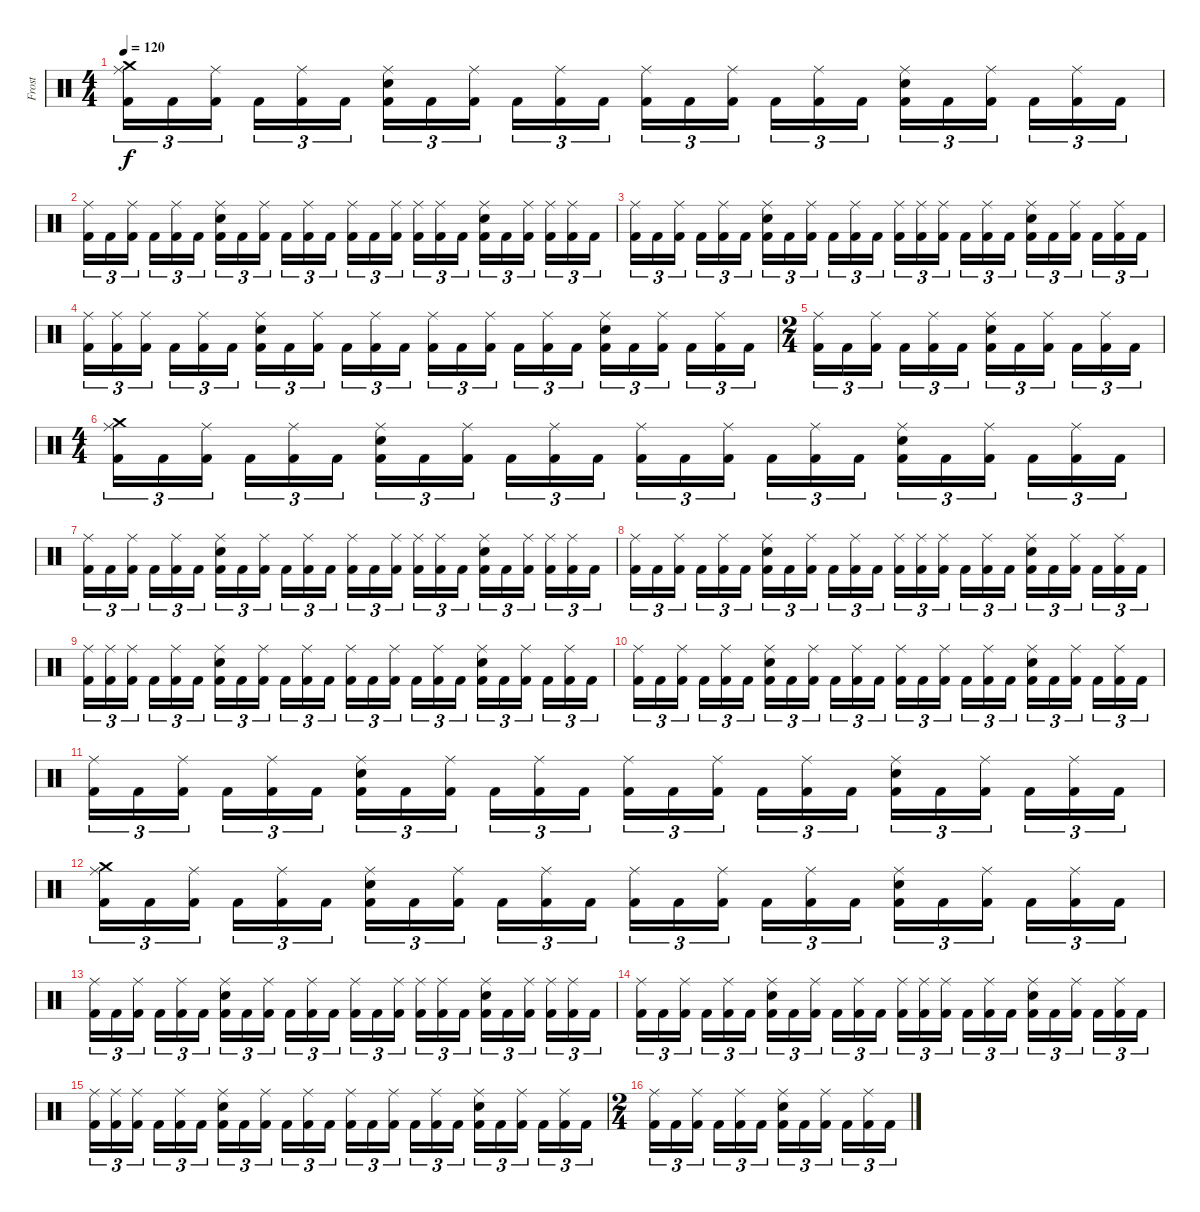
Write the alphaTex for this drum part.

\track ("Frost" "Frost") {instrument percussion}
\staff {score}
\articulation defaults
\ts (4 4)
\tempo 120
\clef neutral
\ks c
("Kick (hit) 2" "Crash medium (hit)" "Ride (middle)").16{tu (3 2) dy f} "Kick (hit) 2".16{tu (3 2)} ("Kick (hit) 2" "Ride (middle)").16{tu (3 2)} "Kick (hit) 2".16{tu (3 2)} ("Kick (hit) 2" "Ride (middle)").16{tu (3 2)} "Kick (hit) 2".16{tu (3 2)} ("Kick (hit) 2" "Electric Snare (hit)" "Ride (middle)").16{tu (3 2)} "Kick (hit) 2".16{tu (3 2)} ("Kick (hit) 2" "Ride (middle)").16{tu (3 2)} "Kick (hit) 2".16{tu (3 2)} ("Kick (hit) 2" "Ride (middle)").16{tu (3 2)} "Kick (hit) 2".16{tu (3 2)} ("Kick (hit) 2" "Ride (middle)").16{tu (3 2)} "Kick (hit) 2".16{tu (3 2)} ("Kick (hit) 2" "Ride (middle)").16{tu (3 2)} "Kick (hit) 2".16{tu (3 2)} ("Kick (hit) 2" "Ride (middle)").16{tu (3 2)} "Kick (hit) 2".16{tu (3 2)} ("Kick (hit) 2" "Electric Snare (hit)" "Ride (middle)").16{tu (3 2)} "Kick (hit) 2".16{tu (3 2)} ("Kick (hit) 2" "Ride (middle)").16{tu (3 2)} "Kick (hit) 2".16{tu (3 2)} ("Kick (hit) 2" "Ride (middle)").16{tu (3 2)} "Kick (hit) 2".16{tu (3 2)} |
("Kick (hit) 2" "Ride (middle)").16{tu (3 2)} "Kick (hit) 2".16{tu (3 2)} ("Kick (hit) 2" "Ride (middle)").16{tu (3 2)} "Kick (hit) 2".16{tu (3 2)} ("Kick (hit) 2" "Ride (middle)").16{tu (3 2)} "Kick (hit) 2".16{tu (3 2)} ("Kick (hit) 2" "Electric Snare (hit)" "Ride (middle)").16{tu (3 2)} "Kick (hit) 2".16{tu (3 2)} ("Kick (hit) 2" "Ride (middle)").16{tu (3 2)} "Kick (hit) 2".16{tu (3 2)} ("Kick (hit) 2" "Ride (middle)").16{tu (3 2)} "Kick (hit) 2".16{tu (3 2)} ("Kick (hit) 2" "Ride (middle)").16{tu (3 2)} "Kick (hit) 2".16{tu (3 2)} ("Kick (hit) 2" "Ride (middle)").16{tu (3 2)} ("Kick (hit) 2" "Ride (middle)").16{tu (3 2)} ("Kick (hit) 2" "Ride (middle)").16{tu (3 2)} "Kick (hit) 2".16{tu (3 2)} ("Kick (hit) 2" "Electric Snare (hit)" "Ride (middle)").16{tu (3 2)} "Kick (hit) 2".16{tu (3 2)} ("Kick (hit) 2" "Ride (middle)").16{tu (3 2)} ("Kick (hit) 2" "Ride (middle)").16{tu (3 2)} ("Kick (hit) 2" "Ride (middle)").16{tu (3 2)} "Kick (hit) 2".16{tu (3 2)} |
("Kick (hit) 2" "Ride (middle)").16{tu (3 2)} "Kick (hit) 2".16{tu (3 2)} ("Kick (hit) 2" "Ride (middle)").16{tu (3 2)} "Kick (hit) 2".16{tu (3 2)} ("Kick (hit) 2" "Ride (middle)").16{tu (3 2)} "Kick (hit) 2".16{tu (3 2)} ("Kick (hit) 2" "Electric Snare (hit)" "Ride (middle)").16{tu (3 2)} "Kick (hit) 2".16{tu (3 2)} ("Kick (hit) 2" "Ride (middle)").16{tu (3 2)} "Kick (hit) 2".16{tu (3 2)} ("Kick (hit) 2" "Ride (middle)").16{tu (3 2)} "Kick (hit) 2".16{tu (3 2)} ("Kick (hit) 2" "Ride (middle)").16{tu (3 2)} ("Kick (hit) 2" "Ride (middle)").16{tu (3 2)} ("Kick (hit) 2" "Ride (middle)").16{tu (3 2)} "Kick (hit) 2".16{tu (3 2)} ("Kick (hit) 2" "Ride (middle)").16{tu (3 2)} "Kick (hit) 2".16{tu (3 2)} ("Kick (hit) 2" "Electric Snare (hit)" "Ride (middle)").16{tu (3 2)} "Kick (hit) 2".16{tu (3 2)} ("Kick (hit) 2" "Ride (middle)").16{tu (3 2)} "Kick (hit) 2".16{tu (3 2)} ("Kick (hit) 2" "Ride (middle)").16{tu (3 2)} "Kick (hit) 2".16{tu (3 2)} |
("Kick (hit) 2" "Ride (middle)").16{tu (3 2)} ("Kick (hit) 2" "Ride (middle)").16{tu (3 2)} ("Kick (hit) 2" "Ride (middle)").16{tu (3 2)} "Kick (hit) 2".16{tu (3 2)} ("Kick (hit) 2" "Ride (middle)").16{tu (3 2)} "Kick (hit) 2".16{tu (3 2)} ("Kick (hit) 2" "Electric Snare (hit)" "Ride (middle)").16{tu (3 2)} "Kick (hit) 2".16{tu (3 2)} ("Kick (hit) 2" "Ride (middle)").16{tu (3 2)} "Kick (hit) 2".16{tu (3 2)} ("Kick (hit) 2" "Ride (middle)").16{tu (3 2)} "Kick (hit) 2".16{tu (3 2)} ("Kick (hit) 2" "Ride (middle)").16{tu (3 2)} "Kick (hit) 2".16{tu (3 2)} ("Kick (hit) 2" "Ride (middle)").16{tu (3 2)} "Kick (hit) 2".16{tu (3 2)} ("Kick (hit) 2" "Ride (middle)").16{tu (3 2)} "Kick (hit) 2".16{tu (3 2)} ("Kick (hit) 2" "Electric Snare (hit)" "Ride (middle)").16{tu (3 2)} "Kick (hit) 2".16{tu (3 2)} ("Kick (hit) 2" "Ride (middle)").16{tu (3 2)} "Kick (hit) 2".16{tu (3 2)} ("Kick (hit) 2" "Ride (middle)").16{tu (3 2)} "Kick (hit) 2".16{tu (3 2)} |
\ts (2 4)
("Kick (hit) 2" "Ride (middle)").16{tu (3 2)} "Kick (hit) 2".16{tu (3 2)} ("Kick (hit) 2" "Ride (middle)").16{tu (3 2)} "Kick (hit) 2".16{tu (3 2)} ("Kick (hit) 2" "Ride (middle)").16{tu (3 2)} "Kick (hit) 2".16{tu (3 2)} ("Kick (hit) 2" "Electric Snare (hit)" "Ride (middle)").16{tu (3 2)} "Kick (hit) 2".16{tu (3 2)} ("Kick (hit) 2" "Ride (middle)").16{tu (3 2)} "Kick (hit) 2".16{tu (3 2)} ("Kick (hit) 2" "Ride (middle)").16{tu (3 2)} "Kick (hit) 2".16{tu (3 2)} |
\ts (4 4)
("Kick (hit) 2" "Crash medium (hit)" "Ride (middle)").16{tu (3 2)} "Kick (hit) 2".16{tu (3 2)} ("Kick (hit) 2" "Ride (middle)").16{tu (3 2)} "Kick (hit) 2".16{tu (3 2)} ("Kick (hit) 2" "Ride (middle)").16{tu (3 2)} "Kick (hit) 2".16{tu (3 2)} ("Kick (hit) 2" "Electric Snare (hit)" "Ride (middle)").16{tu (3 2)} "Kick (hit) 2".16{tu (3 2)} ("Kick (hit) 2" "Ride (middle)").16{tu (3 2)} "Kick (hit) 2".16{tu (3 2)} ("Kick (hit) 2" "Ride (middle)").16{tu (3 2)} "Kick (hit) 2".16{tu (3 2)} ("Kick (hit) 2" "Ride (middle)").16{tu (3 2)} "Kick (hit) 2".16{tu (3 2)} ("Kick (hit) 2" "Ride (middle)").16{tu (3 2)} "Kick (hit) 2".16{tu (3 2)} ("Kick (hit) 2" "Ride (middle)").16{tu (3 2)} "Kick (hit) 2".16{tu (3 2)} ("Kick (hit) 2" "Electric Snare (hit)" "Ride (middle)").16{tu (3 2)} "Kick (hit) 2".16{tu (3 2)} ("Kick (hit) 2" "Ride (middle)").16{tu (3 2)} "Kick (hit) 2".16{tu (3 2)} ("Kick (hit) 2" "Ride (middle)").16{tu (3 2)} "Kick (hit) 2".16{tu (3 2)} |
("Kick (hit) 2" "Ride (middle)").16{tu (3 2)} "Kick (hit) 2".16{tu (3 2)} ("Kick (hit) 2" "Ride (middle)").16{tu (3 2)} "Kick (hit) 2".16{tu (3 2)} ("Kick (hit) 2" "Ride (middle)").16{tu (3 2)} "Kick (hit) 2".16{tu (3 2)} ("Kick (hit) 2" "Electric Snare (hit)" "Ride (middle)").16{tu (3 2)} "Kick (hit) 2".16{tu (3 2)} ("Kick (hit) 2" "Ride (middle)").16{tu (3 2)} "Kick (hit) 2".16{tu (3 2)} ("Kick (hit) 2" "Ride (middle)").16{tu (3 2)} "Kick (hit) 2".16{tu (3 2)} ("Kick (hit) 2" "Ride (middle)").16{tu (3 2)} "Kick (hit) 2".16{tu (3 2)} ("Kick (hit) 2" "Ride (middle)").16{tu (3 2)} ("Kick (hit) 2" "Ride (middle)").16{tu (3 2)} ("Kick (hit) 2" "Ride (middle)").16{tu (3 2)} "Kick (hit) 2".16{tu (3 2)} ("Kick (hit) 2" "Electric Snare (hit)" "Ride (middle)").16{tu (3 2)} "Kick (hit) 2".16{tu (3 2)} ("Kick (hit) 2" "Ride (middle)").16{tu (3 2)} ("Kick (hit) 2" "Ride (middle)").16{tu (3 2)} ("Kick (hit) 2" "Ride (middle)").16{tu (3 2)} "Kick (hit) 2".16{tu (3 2)} |
("Kick (hit) 2" "Ride (middle)").16{tu (3 2)} "Kick (hit) 2".16{tu (3 2)} ("Kick (hit) 2" "Ride (middle)").16{tu (3 2)} "Kick (hit) 2".16{tu (3 2)} ("Kick (hit) 2" "Ride (middle)").16{tu (3 2)} "Kick (hit) 2".16{tu (3 2)} ("Kick (hit) 2" "Electric Snare (hit)" "Ride (middle)").16{tu (3 2)} "Kick (hit) 2".16{tu (3 2)} ("Kick (hit) 2" "Ride (middle)").16{tu (3 2)} "Kick (hit) 2".16{tu (3 2)} ("Kick (hit) 2" "Ride (middle)").16{tu (3 2)} "Kick (hit) 2".16{tu (3 2)} ("Kick (hit) 2" "Ride (middle)").16{tu (3 2)} ("Kick (hit) 2" "Ride (middle)").16{tu (3 2)} ("Kick (hit) 2" "Ride (middle)").16{tu (3 2)} "Kick (hit) 2".16{tu (3 2)} ("Kick (hit) 2" "Ride (middle)").16{tu (3 2)} "Kick (hit) 2".16{tu (3 2)} ("Kick (hit) 2" "Electric Snare (hit)" "Ride (middle)").16{tu (3 2)} "Kick (hit) 2".16{tu (3 2)} ("Kick (hit) 2" "Ride (middle)").16{tu (3 2)} "Kick (hit) 2".16{tu (3 2)} ("Kick (hit) 2" "Ride (middle)").16{tu (3 2)} "Kick (hit) 2".16{tu (3 2)} |
("Kick (hit) 2" "Ride (middle)").16{tu (3 2)} ("Kick (hit) 2" "Ride (middle)").16{tu (3 2)} ("Kick (hit) 2" "Ride (middle)").16{tu (3 2)} "Kick (hit) 2".16{tu (3 2)} ("Kick (hit) 2" "Ride (middle)").16{tu (3 2)} "Kick (hit) 2".16{tu (3 2)} ("Kick (hit) 2" "Electric Snare (hit)" "Ride (middle)").16{tu (3 2)} "Kick (hit) 2".16{tu (3 2)} ("Kick (hit) 2" "Ride (middle)").16{tu (3 2)} "Kick (hit) 2".16{tu (3 2)} ("Kick (hit) 2" "Ride (middle)").16{tu (3 2)} "Kick (hit) 2".16{tu (3 2)} ("Kick (hit) 2" "Ride (middle)").16{tu (3 2)} "Kick (hit) 2".16{tu (3 2)} ("Kick (hit) 2" "Ride (middle)").16{tu (3 2)} "Kick (hit) 2".16{tu (3 2)} ("Kick (hit) 2" "Ride (middle)").16{tu (3 2)} "Kick (hit) 2".16{tu (3 2)} ("Kick (hit) 2" "Electric Snare (hit)" "Ride (middle)").16{tu (3 2)} "Kick (hit) 2".16{tu (3 2)} ("Kick (hit) 2" "Ride (middle)").16{tu (3 2)} "Kick (hit) 2".16{tu (3 2)} ("Kick (hit) 2" "Ride (middle)").16{tu (3 2)} "Kick (hit) 2".16{tu (3 2)} |
("Kick (hit) 2" "Ride (middle)").16{tu (3 2)} "Kick (hit) 2".16{tu (3 2)} ("Kick (hit) 2" "Ride (middle)").16{tu (3 2)} "Kick (hit) 2".16{tu (3 2)} ("Kick (hit) 2" "Ride (middle)").16{tu (3 2)} "Kick (hit) 2".16{tu (3 2)} ("Kick (hit) 2" "Electric Snare (hit)" "Ride (middle)").16{tu (3 2)} "Kick (hit) 2".16{tu (3 2)} ("Kick (hit) 2" "Ride (middle)").16{tu (3 2)} "Kick (hit) 2".16{tu (3 2)} ("Kick (hit) 2" "Ride (middle)").16{tu (3 2)} "Kick (hit) 2".16{tu (3 2)} ("Kick (hit) 2" "Ride (middle)").16{tu (3 2)} "Kick (hit) 2".16{tu (3 2)} ("Kick (hit) 2" "Ride (middle)").16{tu (3 2)} "Kick (hit) 2".16{tu (3 2)} ("Kick (hit) 2" "Ride (middle)").16{tu (3 2)} "Kick (hit) 2".16{tu (3 2)} ("Kick (hit) 2" "Electric Snare (hit)" "Ride (middle)").16{tu (3 2)} "Kick (hit) 2".16{tu (3 2)} ("Kick (hit) 2" "Ride (middle)").16{tu (3 2)} "Kick (hit) 2".16{tu (3 2)} ("Kick (hit) 2" "Ride (middle)").16{tu (3 2)} "Kick (hit) 2".16{tu (3 2)} |
("Kick (hit) 2" "Ride (middle)").16{tu (3 2)} "Kick (hit) 2".16{tu (3 2)} ("Kick (hit) 2" "Ride (middle)").16{tu (3 2)} "Kick (hit) 2".16{tu (3 2)} ("Kick (hit) 2" "Ride (middle)").16{tu (3 2)} "Kick (hit) 2".16{tu (3 2)} ("Kick (hit) 2" "Electric Snare (hit)" "Ride (middle)").16{tu (3 2)} "Kick (hit) 2".16{tu (3 2)} ("Kick (hit) 2" "Ride (middle)").16{tu (3 2)} "Kick (hit) 2".16{tu (3 2)} ("Kick (hit) 2" "Ride (middle)").16{tu (3 2)} "Kick (hit) 2".16{tu (3 2)} ("Kick (hit) 2" "Ride (middle)").16{tu (3 2)} "Kick (hit) 2".16{tu (3 2)} ("Kick (hit) 2" "Ride (middle)").16{tu (3 2)} "Kick (hit) 2".16{tu (3 2)} ("Kick (hit) 2" "Ride (middle)").16{tu (3 2)} "Kick (hit) 2".16{tu (3 2)} ("Kick (hit) 2" "Electric Snare (hit)" "Ride (middle)").16{tu (3 2)} "Kick (hit) 2".16{tu (3 2)} ("Kick (hit) 2" "Ride (middle)").16{tu (3 2)} "Kick (hit) 2".16{tu (3 2)} ("Kick (hit) 2" "Ride (middle)").16{tu (3 2)} "Kick (hit) 2".16{tu (3 2)} |
("Kick (hit) 2" "Crash medium (hit)" "Ride (middle)").16{tu (3 2)} "Kick (hit) 2".16{tu (3 2)} ("Kick (hit) 2" "Ride (middle)").16{tu (3 2)} "Kick (hit) 2".16{tu (3 2)} ("Kick (hit) 2" "Ride (middle)").16{tu (3 2)} "Kick (hit) 2".16{tu (3 2)} ("Kick (hit) 2" "Electric Snare (hit)" "Ride (middle)").16{tu (3 2)} "Kick (hit) 2".16{tu (3 2)} ("Kick (hit) 2" "Ride (middle)").16{tu (3 2)} "Kick (hit) 2".16{tu (3 2)} ("Kick (hit) 2" "Ride (middle)").16{tu (3 2)} "Kick (hit) 2".16{tu (3 2)} ("Kick (hit) 2" "Ride (middle)").16{tu (3 2)} "Kick (hit) 2".16{tu (3 2)} ("Kick (hit) 2" "Ride (middle)").16{tu (3 2)} "Kick (hit) 2".16{tu (3 2)} ("Kick (hit) 2" "Ride (middle)").16{tu (3 2)} "Kick (hit) 2".16{tu (3 2)} ("Kick (hit) 2" "Electric Snare (hit)" "Ride (middle)").16{tu (3 2)} "Kick (hit) 2".16{tu (3 2)} ("Kick (hit) 2" "Ride (middle)").16{tu (3 2)} "Kick (hit) 2".16{tu (3 2)} ("Kick (hit) 2" "Ride (middle)").16{tu (3 2)} "Kick (hit) 2".16{tu (3 2)} |
("Kick (hit) 2" "Ride (middle)").16{tu (3 2)} "Kick (hit) 2".16{tu (3 2)} ("Kick (hit) 2" "Ride (middle)").16{tu (3 2)} "Kick (hit) 2".16{tu (3 2)} ("Kick (hit) 2" "Ride (middle)").16{tu (3 2)} "Kick (hit) 2".16{tu (3 2)} ("Kick (hit) 2" "Electric Snare (hit)" "Ride (middle)").16{tu (3 2)} "Kick (hit) 2".16{tu (3 2)} ("Kick (hit) 2" "Ride (middle)").16{tu (3 2)} "Kick (hit) 2".16{tu (3 2)} ("Kick (hit) 2" "Ride (middle)").16{tu (3 2)} "Kick (hit) 2".16{tu (3 2)} ("Kick (hit) 2" "Ride (middle)").16{tu (3 2)} "Kick (hit) 2".16{tu (3 2)} ("Kick (hit) 2" "Ride (middle)").16{tu (3 2)} ("Kick (hit) 2" "Ride (middle)").16{tu (3 2)} ("Kick (hit) 2" "Ride (middle)").16{tu (3 2)} "Kick (hit) 2".16{tu (3 2)} ("Kick (hit) 2" "Electric Snare (hit)" "Ride (middle)").16{tu (3 2)} "Kick (hit) 2".16{tu (3 2)} ("Kick (hit) 2" "Ride (middle)").16{tu (3 2)} ("Kick (hit) 2" "Ride (middle)").16{tu (3 2)} ("Kick (hit) 2" "Ride (middle)").16{tu (3 2)} "Kick (hit) 2".16{tu (3 2)} |
("Kick (hit) 2" "Ride (middle)").16{tu (3 2)} "Kick (hit) 2".16{tu (3 2)} ("Kick (hit) 2" "Ride (middle)").16{tu (3 2)} "Kick (hit) 2".16{tu (3 2)} ("Kick (hit) 2" "Ride (middle)").16{tu (3 2)} "Kick (hit) 2".16{tu (3 2)} ("Kick (hit) 2" "Electric Snare (hit)" "Ride (middle)").16{tu (3 2)} "Kick (hit) 2".16{tu (3 2)} ("Kick (hit) 2" "Ride (middle)").16{tu (3 2)} "Kick (hit) 2".16{tu (3 2)} ("Kick (hit) 2" "Ride (middle)").16{tu (3 2)} "Kick (hit) 2".16{tu (3 2)} ("Kick (hit) 2" "Ride (middle)").16{tu (3 2)} ("Kick (hit) 2" "Ride (middle)").16{tu (3 2)} ("Kick (hit) 2" "Ride (middle)").16{tu (3 2)} "Kick (hit) 2".16{tu (3 2)} ("Kick (hit) 2" "Ride (middle)").16{tu (3 2)} "Kick (hit) 2".16{tu (3 2)} ("Kick (hit) 2" "Electric Snare (hit)" "Ride (middle)").16{tu (3 2)} "Kick (hit) 2".16{tu (3 2)} ("Kick (hit) 2" "Ride (middle)").16{tu (3 2)} "Kick (hit) 2".16{tu (3 2)} ("Kick (hit) 2" "Ride (middle)").16{tu (3 2)} "Kick (hit) 2".16{tu (3 2)} |
("Kick (hit) 2" "Ride (middle)").16{tu (3 2)} ("Kick (hit) 2" "Ride (middle)").16{tu (3 2)} ("Kick (hit) 2" "Ride (middle)").16{tu (3 2)} "Kick (hit) 2".16{tu (3 2)} ("Kick (hit) 2" "Ride (middle)").16{tu (3 2)} "Kick (hit) 2".16{tu (3 2)} ("Kick (hit) 2" "Electric Snare (hit)" "Ride (middle)").16{tu (3 2)} "Kick (hit) 2".16{tu (3 2)} ("Kick (hit) 2" "Ride (middle)").16{tu (3 2)} "Kick (hit) 2".16{tu (3 2)} ("Kick (hit) 2" "Ride (middle)").16{tu (3 2)} "Kick (hit) 2".16{tu (3 2)} ("Kick (hit) 2" "Ride (middle)").16{tu (3 2)} "Kick (hit) 2".16{tu (3 2)} ("Kick (hit) 2" "Ride (middle)").16{tu (3 2)} "Kick (hit) 2".16{tu (3 2)} ("Kick (hit) 2" "Ride (middle)").16{tu (3 2)} "Kick (hit) 2".16{tu (3 2)} ("Kick (hit) 2" "Electric Snare (hit)" "Ride (middle)").16{tu (3 2)} "Kick (hit) 2".16{tu (3 2)} ("Kick (hit) 2" "Ride (middle)").16{tu (3 2)} "Kick (hit) 2".16{tu (3 2)} ("Kick (hit) 2" "Ride (middle)").16{tu (3 2)} "Kick (hit) 2".16{tu (3 2)} |
\ts (2 4)
("Kick (hit) 2" "Ride (middle)").16{tu (3 2)} "Kick (hit) 2".16{tu (3 2)} ("Kick (hit) 2" "Ride (middle)").16{tu (3 2)} "Kick (hit) 2".16{tu (3 2)} ("Kick (hit) 2" "Ride (middle)").16{tu (3 2)} "Kick (hit) 2".16{tu (3 2)} ("Kick (hit) 2" "Electric Snare (hit)" "Ride (middle)").16{tu (3 2)} "Kick (hit) 2".16{tu (3 2)} ("Kick (hit) 2" "Ride (middle)").16{tu (3 2)} "Kick (hit) 2".16{tu (3 2)} ("Kick (hit) 2" "Ride (middle)").16{tu (3 2)} "Kick (hit) 2".16{tu (3 2)}
